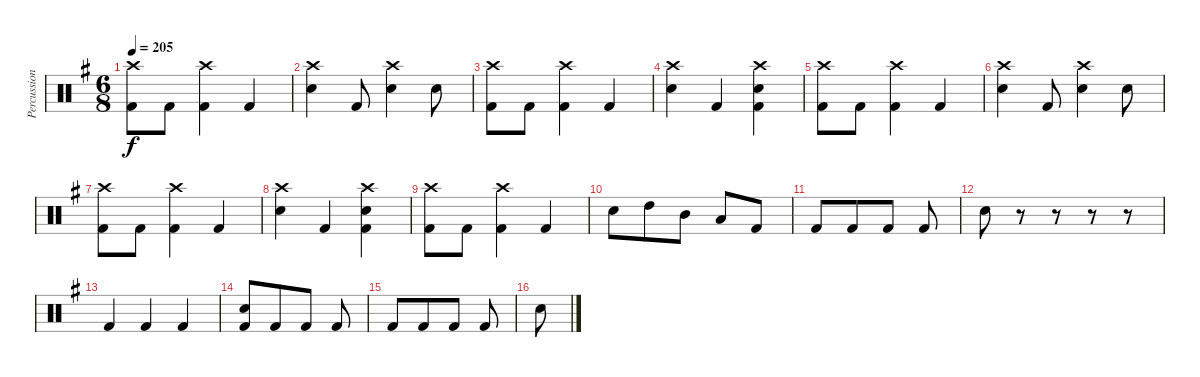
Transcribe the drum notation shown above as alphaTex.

\track ("Percussion" "Percussion") {instrument percussion}
\staff {score}
\articulation defaults
\ts (6 8)
\tempo 205
\clef neutral
\ks g
("Crash high (hit)" "Kick (hit) 2").8{dy f} "Kick (hit) 2".8 ("Crash high (hit)" "Kick (hit) 2").4 "Kick (hit) 2".4 |
("Crash high (hit)" "Electric Snare (hit)").4 "Kick (hit) 2".8 ("Crash high (hit)" "Electric Snare (hit)").4 "Electric Snare (hit)".8 |
("Crash high (hit)" "Kick (hit) 2").8 "Kick (hit) 2".8 ("Crash high (hit)" "Kick (hit) 2").4 "Kick (hit) 2".4 |
("Crash high (hit)" "Electric Snare (hit)").4 "Kick (hit) 2".4 ("Electric Snare (hit)" "Kick (hit) 2" "Crash high (hit)").4 |
("Crash high (hit)" "Kick (hit) 2").8 "Kick (hit) 2".8 ("Crash high (hit)" "Kick (hit) 2").4 "Kick (hit) 2".4 |
("Crash high (hit)" "Electric Snare (hit)").4 "Kick (hit) 2".8 ("Crash high (hit)" "Electric Snare (hit)").4 "Electric Snare (hit)".8 |
("Crash high (hit)" "Kick (hit) 2").8 "Kick (hit) 2".8 ("Crash high (hit)" "Kick (hit) 2").4 "Kick (hit) 2".4 |
("Crash high (hit)" "Electric Snare (hit)").4 "Kick (hit) 2".4 ("Electric Snare (hit)" "Kick (hit) 2" "Crash high (hit)").4 |
("Crash high (hit)" "Kick (hit) 2").8 "Kick (hit) 2".8 ("Crash high (hit)" "Kick (hit) 2").4 "Kick (hit) 2".4 |
"Electric Snare (hit)".8 "High Tom (hit)".8 "Mid Tom (hit)".8 "Low Tom (hit)".8 "Kick (hit) 2".8 |
"Kick (hit) 2".8 "Kick (hit) 2".8 "Kick (hit) 2".8 "Kick (hit) 2".8 |
"Electric Snare (hit)".8 r.8 r.8 r.8 r.8 |
"Kick (hit) 2".4 "Kick (hit) 2".4 "Kick (hit) 2".4 |
("Electric Snare (hit)" "Kick (hit) 2").8 "Kick (hit) 2".8 "Kick (hit) 2".8 "Kick (hit) 2".8 |
"Kick (hit) 2".8 "Kick (hit) 2".8 "Kick (hit) 2".8 "Kick (hit) 2".8 |
"Electric Snare (hit)".8
